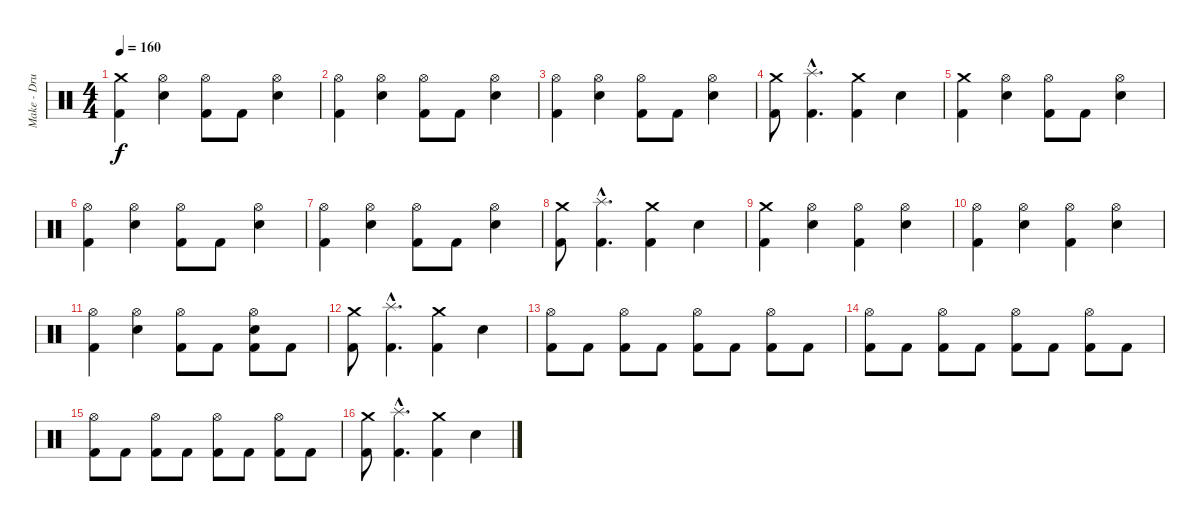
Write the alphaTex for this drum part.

\track ("Make - Drums" "Make - Dru") {instrument percussion}
\staff {score}
\articulation defaults
\ts (4 4)
\tempo 160
\clef neutral
\ks c
("Kick (hit) 2" "Crash medium (hit)").4{dy f} ("Snare (hit) 2" "Hi-Hat (open)").4 ("Kick (hit) 2" "Hi-Hat (open)").8 "Kick (hit) 2".8 ("Snare (hit) 2" "Hi-Hat (open)").4 |
("Kick (hit) 2" "Hi-Hat (open)").4 ("Snare (hit) 2" "Hi-Hat (open)").4 ("Kick (hit) 2" "Hi-Hat (open)").8 "Kick (hit) 2".8 ("Snare (hit) 2" "Hi-Hat (open)").4 |
("Kick (hit) 2" "Hi-Hat (open)").4 ("Snare (hit) 2" "Hi-Hat (open)").4 ("Kick (hit) 2" "Hi-Hat (open)").8 "Kick (hit) 2".8 ("Snare (hit) 2" "Hi-Hat (open)").4 |
("Kick (hit) 2" "Crash medium (hit)").8 ("Kick (hit) 2"{hac} "Splash (hit)"{hac}).4{d} ("Kick (hit) 2" "Crash medium (hit)").4 "Snare (hit) 2".4 |
("Kick (hit) 2" "Crash medium (hit)").4 ("Snare (hit) 2" "Hi-Hat (open)").4 ("Kick (hit) 2" "Hi-Hat (open)").8 "Kick (hit) 2".8 ("Snare (hit) 2" "Hi-Hat (open)").4 |
("Kick (hit) 2" "Hi-Hat (open)").4 ("Snare (hit) 2" "Hi-Hat (open)").4 ("Kick (hit) 2" "Hi-Hat (open)").8 "Kick (hit) 2".8 ("Snare (hit) 2" "Hi-Hat (open)").4 |
("Kick (hit) 2" "Hi-Hat (open)").4 ("Snare (hit) 2" "Hi-Hat (open)").4 ("Kick (hit) 2" "Hi-Hat (open)").8 "Kick (hit) 2".8 ("Snare (hit) 2" "Hi-Hat (open)").4 |
("Kick (hit) 2" "Crash medium (hit)").8 ("Kick (hit) 2"{hac} "Splash (hit)"{hac}).4{d} ("Kick (hit) 2" "Crash medium (hit)").4 "Snare (hit) 2".4 |
("Kick (hit) 2" "Crash medium (hit)").4 ("Snare (hit) 2" "Hi-Hat (open)").4 ("Kick (hit) 2" "Hi-Hat (open)").4 ("Snare (hit) 2" "Hi-Hat (open)").4 |
("Kick (hit) 2" "Hi-Hat (open)").4 ("Snare (hit) 2" "Hi-Hat (open)").4 ("Kick (hit) 2" "Hi-Hat (open)").4 ("Snare (hit) 2" "Hi-Hat (open)").4 |
("Kick (hit) 2" "Hi-Hat (open)").4 ("Snare (hit) 2" "Hi-Hat (open)").4 ("Kick (hit) 2" "Hi-Hat (open)").8 "Kick (hit) 2".8 ("Kick (hit) 2" "Snare (hit) 2" "Hi-Hat (open)").8 "Kick (hit) 2".8 |
("Kick (hit) 2" "Crash medium (hit)").8 ("Kick (hit) 2"{hac} "Splash (hit)"{hac}).4{d} ("Kick (hit) 2" "Crash medium (hit)").4 "Snare (hit) 2".4 |
("Kick (hit) 2" "Hi-Hat (open)").8 "Kick (hit) 2".8 ("Kick (hit) 2" "Hi-Hat (open)").8 "Kick (hit) 2".8 ("Kick (hit) 2" "Hi-Hat (open)").8 "Kick (hit) 2".8 ("Kick (hit) 2" "Hi-Hat (open)").8 "Kick (hit) 2".8 |
("Kick (hit) 2" "Hi-Hat (open)").8 "Kick (hit) 2".8 ("Kick (hit) 2" "Hi-Hat (open)").8 "Kick (hit) 2".8 ("Kick (hit) 2" "Hi-Hat (open)").8 "Kick (hit) 2".8 ("Kick (hit) 2" "Hi-Hat (open)").8 "Kick (hit) 2".8 |
("Kick (hit) 2" "Hi-Hat (open)").8 "Kick (hit) 2".8 ("Kick (hit) 2" "Hi-Hat (open)").8 "Kick (hit) 2".8 ("Kick (hit) 2" "Hi-Hat (open)").8 "Kick (hit) 2".8 ("Kick (hit) 2" "Hi-Hat (open)").8 "Kick (hit) 2".8 |
("Kick (hit) 2" "Crash medium (hit)").8 ("Kick (hit) 2"{hac} "Splash (hit)"{hac}).4{d} ("Kick (hit) 2" "Crash medium (hit)").4 "Snare (hit) 2".4
